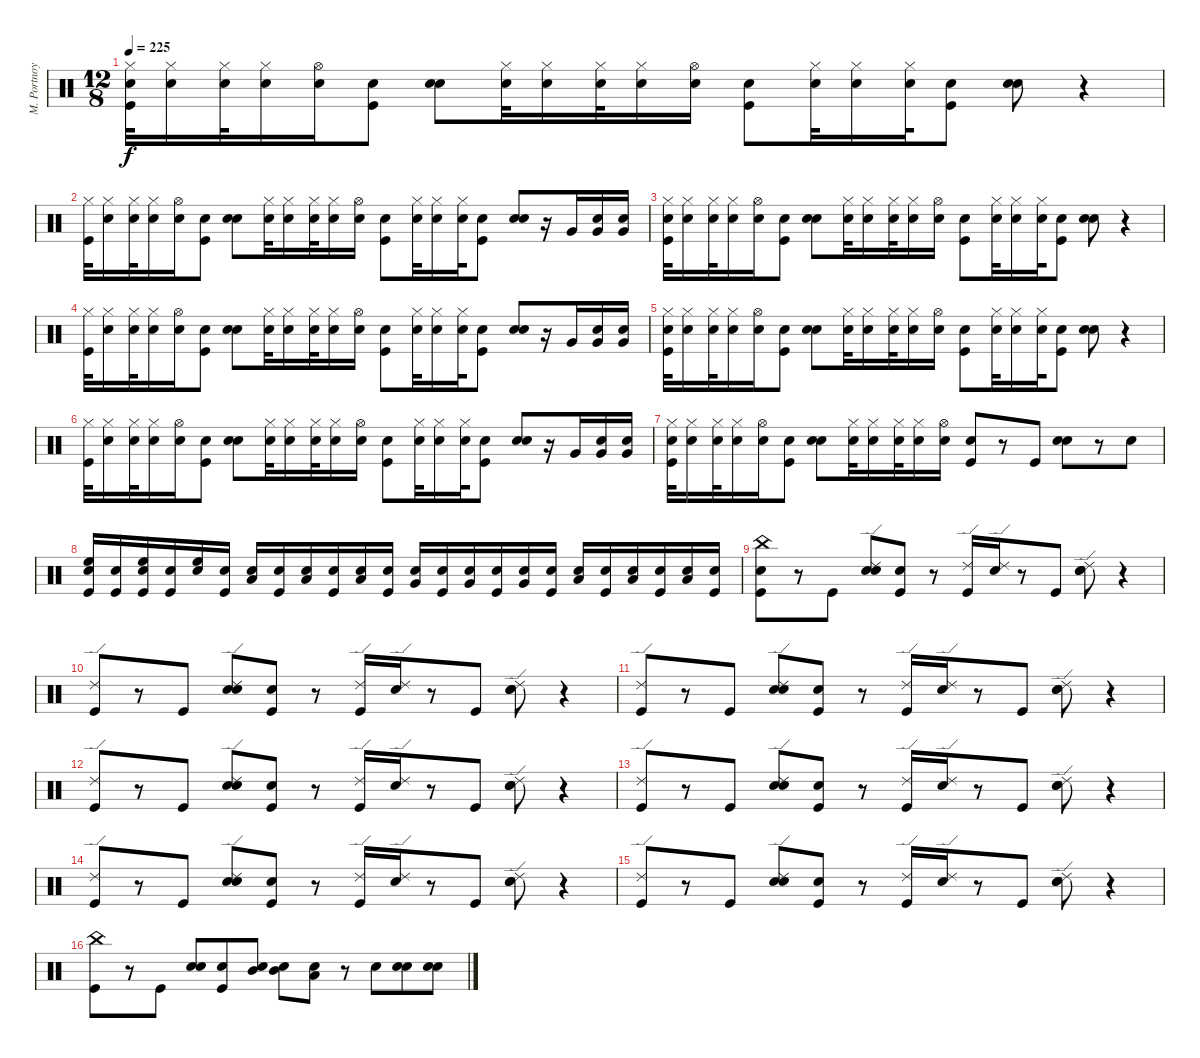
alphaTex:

\track ("M. Portnoy" "M. Portnoy") {instrument percussion}
\staff {score}
\articulation defaults
\ts (12 8)
\tempo 225
\clef neutral
\ks c
("Snare (hit)" "Kick (hit)" "Hi-Hat (closed)").32{dy f} ("Snare (hit)" "Hi-Hat (closed)").16 ("Snare (hit)" "Hi-Hat (closed)").32 ("Snare (hit)" "Hi-Hat (closed)").16 ("Snare (hit)" "Hi-Hat (open)").16 ("Snare (hit)" "Kick (hit)").8 ("Snare (hit)" "Snare (hit) 2").8 ("Snare (hit)" "Hi-Hat (closed)").32 ("Snare (hit)" "Hi-Hat (closed)").16 ("Snare (hit)" "Hi-Hat (closed)").32 ("Snare (hit)" "Hi-Hat (closed)").16 ("Snare (hit)" "Hi-Hat (open)").16 ("Snare (hit)" "Kick (hit)").8 ("Snare (hit)" "Hi-Hat (closed)").32 ("Snare (hit)" "Hi-Hat (closed)").16 ("Snare (hit)" "Hi-Hat (closed)").32 ("Snare (hit)" "Kick (hit)").8 ("Snare (hit)" "Snare (hit) 2").8 r.4 |
("Kick (hit)" "Hi-Hat (closed)").32 ("Snare (hit)" "Hi-Hat (closed)").16 ("Snare (hit)" "Hi-Hat (closed)").32 ("Snare (hit)" "Hi-Hat (closed)").16 ("Snare (hit)" "Hi-Hat (open)").16 ("Snare (hit)" "Kick (hit)").8 ("Snare (hit)" "Snare (hit) 2").8 ("Snare (hit)" "Hi-Hat (closed)").32 ("Snare (hit)" "Hi-Hat (closed)").16 ("Snare (hit)" "Hi-Hat (closed)").32 ("Snare (hit)" "Hi-Hat (closed)").16 ("Snare (hit)" "Hi-Hat (open)").16 ("Snare (hit)" "Kick (hit)").8 ("Snare (hit)" "Hi-Hat (closed)").32 ("Snare (hit)" "Hi-Hat (closed)").16 ("Snare (hit)" "Hi-Hat (closed)").32 ("Snare (hit)" "Kick (hit)").8 ("Snare (hit)" "Snare (hit) 2").8 r.16 "Very Low Tom (hit)".16 ("Snare (hit)" "Very Low Tom (hit)").16 ("Snare (hit)" "Very Low Tom (hit)").16 |
("Snare (hit)" "Kick (hit)" "Hi-Hat (closed)").32 ("Snare (hit)" "Hi-Hat (closed)").16 ("Snare (hit)" "Hi-Hat (closed)").32 ("Snare (hit)" "Hi-Hat (closed)").16 ("Snare (hit)" "Hi-Hat (open)").16 ("Snare (hit)" "Kick (hit)").8 ("Snare (hit)" "Snare (hit) 2").8 ("Snare (hit)" "Hi-Hat (closed)").32 ("Snare (hit)" "Hi-Hat (closed)").16 ("Snare (hit)" "Hi-Hat (closed)").32 ("Snare (hit)" "Hi-Hat (closed)").16 ("Snare (hit)" "Hi-Hat (open)").16 ("Snare (hit)" "Kick (hit)").8 ("Snare (hit)" "Hi-Hat (closed)").32 ("Snare (hit)" "Hi-Hat (closed)").16 ("Snare (hit)" "Hi-Hat (closed)").32 ("Snare (hit)" "Kick (hit)").8 ("Snare (hit)" "Snare (hit) 2").8 r.4 |
("Kick (hit)" "Hi-Hat (closed)").32 ("Snare (hit)" "Hi-Hat (closed)").16 ("Snare (hit)" "Hi-Hat (closed)").32 ("Snare (hit)" "Hi-Hat (closed)").16 ("Snare (hit)" "Hi-Hat (open)").16 ("Snare (hit)" "Kick (hit)").8 ("Snare (hit)" "Snare (hit) 2").8 ("Snare (hit)" "Hi-Hat (closed)").32 ("Snare (hit)" "Hi-Hat (closed)").16 ("Snare (hit)" "Hi-Hat (closed)").32 ("Snare (hit)" "Hi-Hat (closed)").16 ("Snare (hit)" "Hi-Hat (open)").16 ("Snare (hit)" "Kick (hit)").8 ("Snare (hit)" "Hi-Hat (closed)").32 ("Snare (hit)" "Hi-Hat (closed)").16 ("Snare (hit)" "Hi-Hat (closed)").32 ("Snare (hit)" "Kick (hit)").8 ("Snare (hit)" "Snare (hit) 2").8 r.16 "Very Low Tom (hit)".16 ("Snare (hit)" "Very Low Tom (hit)").16 ("Snare (hit)" "Very Low Tom (hit)").16 |
("Snare (hit)" "Kick (hit)" "Hi-Hat (closed)").32 ("Snare (hit)" "Hi-Hat (closed)").16 ("Snare (hit)" "Hi-Hat (closed)").32 ("Snare (hit)" "Hi-Hat (closed)").16 ("Snare (hit)" "Hi-Hat (open)").16 ("Snare (hit)" "Kick (hit)").8 ("Snare (hit)" "Snare (hit) 2").8 ("Snare (hit)" "Hi-Hat (closed)").32 ("Snare (hit)" "Hi-Hat (closed)").16 ("Snare (hit)" "Hi-Hat (closed)").32 ("Snare (hit)" "Hi-Hat (closed)").16 ("Snare (hit)" "Hi-Hat (open)").16 ("Snare (hit)" "Kick (hit)").8 ("Snare (hit)" "Hi-Hat (closed)").32 ("Snare (hit)" "Hi-Hat (closed)").16 ("Snare (hit)" "Hi-Hat (closed)").32 ("Snare (hit)" "Kick (hit)").8 ("Snare (hit)" "Snare (hit) 2").8 r.4 |
("Kick (hit)" "Hi-Hat (closed)").32 ("Snare (hit)" "Hi-Hat (closed)").16 ("Snare (hit)" "Hi-Hat (closed)").32 ("Snare (hit)" "Hi-Hat (closed)").16 ("Snare (hit)" "Hi-Hat (open)").16 ("Snare (hit)" "Kick (hit)").8 ("Snare (hit)" "Snare (hit) 2").8 ("Snare (hit)" "Hi-Hat (closed)").32 ("Snare (hit)" "Hi-Hat (closed)").16 ("Snare (hit)" "Hi-Hat (closed)").32 ("Snare (hit)" "Hi-Hat (closed)").16 ("Snare (hit)" "Hi-Hat (open)").16 ("Snare (hit)" "Kick (hit)").8 ("Snare (hit)" "Hi-Hat (closed)").32 ("Snare (hit)" "Hi-Hat (closed)").16 ("Snare (hit)" "Hi-Hat (closed)").32 ("Snare (hit)" "Kick (hit)").8 ("Snare (hit)" "Snare (hit) 2").8 r.16 "Very Low Tom (hit)".16 ("Snare (hit)" "Very Low Tom (hit)").16 ("Snare (hit)" "Very Low Tom (hit)").16 |
("Snare (hit)" "Kick (hit)" "Hi-Hat (closed)").32 ("Snare (hit)" "Hi-Hat (closed)").16 ("Snare (hit)" "Hi-Hat (closed)").32 ("Snare (hit)" "Hi-Hat (closed)").16 ("Snare (hit)" "Hi-Hat (open)").16 ("Snare (hit)" "Kick (hit)").8 ("Snare (hit)" "Snare (hit) 2").8 ("Snare (hit)" "Hi-Hat (closed)").32 ("Snare (hit)" "Hi-Hat (closed)").16 ("Snare (hit)" "Hi-Hat (closed)").32 ("Snare (hit)" "Hi-Hat (closed)").16 ("Snare (hit)" "Hi-Hat (open)").16 ("Snare (hit)" "Kick (hit)").8 r.8 "Kick (hit)".8 ("Snare (hit)" "Snare (hit) 2").8 r.8 "Snare (hit) 2".8 |
("Snare (hit)" "Kick (hit)" "High Floor Tom (hit)").16 ("Snare (hit)" "Kick (hit)").16 ("Snare (hit)" "Kick (hit)" "High Floor Tom (hit)").16 ("Snare (hit)" "Kick (hit)").16 ("Snare (hit)" "High Floor Tom (hit)").16 ("Snare (hit)" "Kick (hit)").16 ("Snare (hit)" "Low Tom (hit)").16 ("Snare (hit)" "Kick (hit)").16 ("Snare (hit)" "Low Tom (hit)").16 ("Snare (hit)" "Kick (hit)").16 ("Snare (hit)" "Low Tom (hit)").16 ("Snare (hit)" "Kick (hit)").16 ("Snare (hit)" "Very Low Tom (hit)").16 ("Snare (hit)" "Kick (hit)").16 ("Snare (hit)" "Very Low Tom (hit)").16 ("Snare (hit)" "Kick (hit)").16 ("Snare (hit)" "Very Low Tom (hit)").16 ("Snare (hit)" "Kick (hit)").16 ("Snare (hit)" "Low Floor Tom (hit)").16 ("Snare (hit)" "Kick (hit)").16 ("Snare (hit)" "Low Floor Tom (hit)").16 ("Snare (hit)" "Kick (hit)").16 ("Snare (hit)" "Low Floor Tom (hit)").16 ("Snare (hit)" "Kick (hit)").16 |
("Snare (hit)" "Kick (hit)" "China (hit)").8 r.8 "Kick (hit)".8 ("Snare (hit)" "Snare (hit) 2" "Ride (edge) 2").8 ("Snare (hit)" "Kick (hit)").8 r.8 ("Kick (hit)" "Ride (edge) 2").16 ("Snare (hit)" "Ride (edge) 2").16 r.8 "Kick (hit)".8 ("Snare (hit)" "Snare (hit) 2" "Ride (edge) 2").8 r.4 |
("Kick (hit)" "Ride (edge) 2").8 r.8 "Kick (hit)".8 ("Snare (hit)" "Snare (hit) 2" "Ride (edge) 2").8 ("Snare (hit)" "Kick (hit)").8 r.8 ("Kick (hit)" "Ride (edge) 2").16 ("Snare (hit)" "Ride (edge) 2").16 r.8 "Kick (hit)".8 ("Snare (hit)" "Snare (hit) 2" "Ride (edge) 2").8 r.4 |
("Kick (hit)" "Ride (edge) 2").8 r.8 "Kick (hit)".8 ("Snare (hit)" "Snare (hit) 2" "Ride (edge) 2").8 ("Snare (hit)" "Kick (hit)").8 r.8 ("Kick (hit)" "Ride (edge) 2").16 ("Snare (hit)" "Ride (edge) 2").16 r.8 "Kick (hit)".8 ("Snare (hit)" "Snare (hit) 2" "Ride (edge) 2").8 r.4 |
("Kick (hit)" "Ride (edge) 2").8 r.8 "Kick (hit)".8 ("Snare (hit)" "Snare (hit) 2" "Ride (edge) 2").8 ("Snare (hit)" "Kick (hit)").8 r.8 ("Kick (hit)" "Ride (edge) 2").16 ("Snare (hit)" "Ride (edge) 2").16 r.8 "Kick (hit)".8 ("Snare (hit)" "Snare (hit) 2" "Ride (edge) 2").8 r.4 |
("Kick (hit)" "Ride (edge) 2").8 r.8 "Kick (hit)".8 ("Snare (hit)" "Snare (hit) 2" "Ride (edge) 2").8 ("Snare (hit)" "Kick (hit)").8 r.8 ("Kick (hit)" "Ride (edge) 2").16 ("Snare (hit)" "Ride (edge) 2").16 r.8 "Kick (hit)".8 ("Snare (hit)" "Snare (hit) 2" "Ride (edge) 2").8 r.4 |
("Kick (hit)" "Ride (edge) 2").8 r.8 "Kick (hit)".8 ("Snare (hit)" "Snare (hit) 2" "Ride (edge) 2").8 ("Snare (hit)" "Kick (hit)").8 r.8 ("Kick (hit)" "Ride (edge) 2").16 ("Snare (hit)" "Ride (edge) 2").16 r.8 "Kick (hit)".8 ("Snare (hit)" "Snare (hit) 2" "Ride (edge) 2").8 r.4 |
("Kick (hit)" "Ride (edge) 2").8 r.8 "Kick (hit)".8 ("Snare (hit)" "Snare (hit) 2" "Ride (edge) 2").8 ("Snare (hit)" "Kick (hit)").8 r.8 ("Kick (hit)" "Ride (edge) 2").16 ("Snare (hit)" "Ride (edge) 2").16 r.8 "Kick (hit)".8 ("Snare (hit)" "Snare (hit) 2" "Ride (edge) 2").8 r.4 |
("Kick (hit)" "China (hit)").8 r.8 "Kick (hit)".8 ("Snare (hit)" "Snare (hit) 2").8 ("Snare (hit)" "Kick (hit)").8 ("Snare (hit)" "Mid Tom (hit)").8 ("Snare (hit)" "Mid Tom (hit)").8 ("Snare (hit)" "Low Tom (hit)").8 r.8 "Snare (hit) 2".8 ("Snare (hit)" "Snare (hit) 2").8 ("Snare (hit)" "Snare (hit) 2").8
